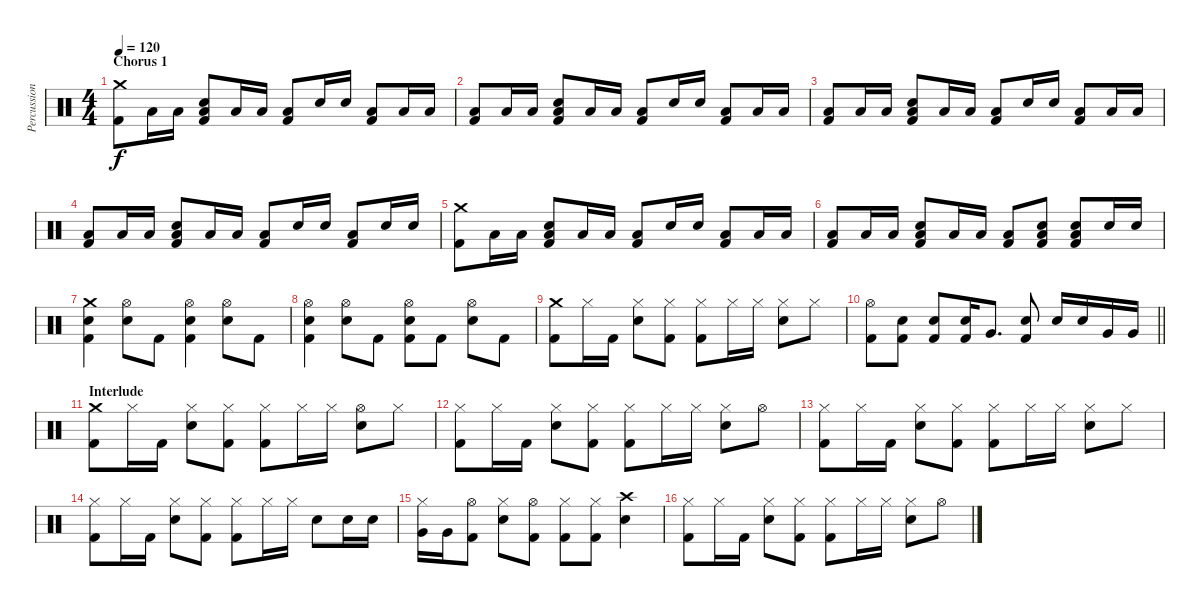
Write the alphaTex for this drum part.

\track ("Percussion" "Percussion") {instrument percussion}
\staff {score}
\articulation defaults
\ts (4 4)
\section ("" "Chorus 1")
\tempo 120
\clef neutral
\ks c
("Crash medium (hit)" "Kick (hit) 2").8{dy f} "Low Floor Tom (hit)".16 "Low Floor Tom (hit)".16 ("Low Floor Tom (hit)" "Electric Snare (hit)" "Kick (hit) 2").8 "Low Floor Tom (hit)".16 "Low Floor Tom (hit)".16 ("Low Floor Tom (hit)" "Kick (hit) 2").8 "Electric Snare (hit)".16 "Electric Snare (hit)".16 ("Low Floor Tom (hit)" "Kick (hit) 2").8 "Low Floor Tom (hit)".16 "Low Floor Tom (hit)".16 |
("Low Floor Tom (hit)" "Kick (hit) 2").8 "Low Floor Tom (hit)".16 "Low Floor Tom (hit)".16 ("Low Floor Tom (hit)" "Electric Snare (hit)" "Kick (hit) 2").8 "Low Floor Tom (hit)".16 "Low Floor Tom (hit)".16 ("Low Floor Tom (hit)" "Kick (hit) 2").8 "Electric Snare (hit)".16 "Electric Snare (hit)".16 ("Low Floor Tom (hit)" "Kick (hit) 2").8 "Low Floor Tom (hit)".16 "Low Floor Tom (hit)".16 |
("Low Floor Tom (hit)" "Kick (hit) 2").8 "Low Floor Tom (hit)".16 "Low Floor Tom (hit)".16 ("Low Floor Tom (hit)" "Electric Snare (hit)" "Kick (hit) 2").8 "Low Floor Tom (hit)".16 "Low Floor Tom (hit)".16 ("Low Floor Tom (hit)" "Kick (hit) 2").8 "Electric Snare (hit)".16 "Electric Snare (hit)".16 ("Low Floor Tom (hit)" "Kick (hit) 2").8 "Low Floor Tom (hit)".16 "Low Floor Tom (hit)".16 |
("Low Floor Tom (hit)" "Kick (hit) 2").8 "Low Floor Tom (hit)".16 "Low Floor Tom (hit)".16 ("Low Floor Tom (hit)" "Electric Snare (hit)" "Kick (hit) 2").8 "Low Floor Tom (hit)".16 "Low Floor Tom (hit)".16 ("Low Floor Tom (hit)" "Kick (hit) 2").8 "Electric Snare (hit)".16 "Electric Snare (hit)".16 ("Low Floor Tom (hit)" "Kick (hit) 2").8 "Electric Snare (hit)".16 "Electric Snare (hit)".16 |
("Crash medium (hit)" "Kick (hit) 2").8 "Low Floor Tom (hit)".16 "Low Floor Tom (hit)".16 ("Low Floor Tom (hit)" "Electric Snare (hit)" "Kick (hit) 2").8 "Low Floor Tom (hit)".16 "Low Floor Tom (hit)".16 ("Low Floor Tom (hit)" "Kick (hit) 2").8 "Electric Snare (hit)".16 "Electric Snare (hit)".16 ("Low Floor Tom (hit)" "Kick (hit) 2").8 "Low Floor Tom (hit)".16 "Low Floor Tom (hit)".16 |
("Low Floor Tom (hit)" "Kick (hit) 2").8 "Low Floor Tom (hit)".16 "Low Floor Tom (hit)".16 ("Low Floor Tom (hit)" "Electric Snare (hit)" "Kick (hit) 2").8 "Low Floor Tom (hit)".16 "Low Floor Tom (hit)".16 ("Low Floor Tom (hit)" "Kick (hit) 2").8 ("Low Floor Tom (hit)" "Electric Snare (hit)" "Kick (hit) 2").8 ("Low Floor Tom (hit)" "Electric Snare (hit)" "Kick (hit) 2").8 "Electric Snare (hit)".16 "Electric Snare (hit)".16 |
("Crash medium (hit)" "Electric Snare (hit)" "Kick (hit) 2").4 ("Hi-Hat (open)" "Electric Snare (hit)").8 "Kick (hit) 2".8 ("Hi-Hat (open)" "Electric Snare (hit)" "Kick (hit) 2").4 ("Hi-Hat (open)" "Electric Snare (hit)").8 "Kick (hit) 2".8 |
("Hi-Hat (open)" "Electric Snare (hit)" "Kick (hit) 2").4 ("Hi-Hat (open)" "Electric Snare (hit)").8 "Kick (hit) 2".8 ("Hi-Hat (open)" "Electric Snare (hit)" "Kick (hit) 2").8 "Kick (hit) 2".8 ("Hi-Hat (open)" "Electric Snare (hit)").8 "Kick (hit) 2".8 |
("Crash medium (hit)" "Kick (hit) 2").8 "Hi-Hat (closed)".16 "Kick (hit) 2".16 ("Hi-Hat (closed)" "Electric Snare (hit)").8 ("Hi-Hat (closed)" "Kick (hit) 2").8 ("Hi-Hat (closed)" "Kick (hit) 2").8 "Hi-Hat (closed)".16 "Hi-Hat (closed)".16 ("Hi-Hat (closed)" "Electric Snare (hit)").8 "Hi-Hat (closed)".8 |
\barLineRight lightlight
("Hi-Hat (open)" "Kick (hit) 2").8 ("Electric Snare (hit)" "Kick (hit) 2").8 ("Electric Snare (hit)" "Kick (hit) 2").8 ("Electric Snare (hit)" "Kick (hit) 2").16 "Very Low Tom (hit)".8{d} ("Electric Snare (hit)" "Kick (hit) 2").8 "Electric Snare (hit)".16 "Electric Snare (hit)".16 "Very Low Tom (hit)".16 "Very Low Tom (hit)".16 |
\section ("" "Interlude")
("Crash medium (hit)" "Kick (hit) 2").8 "Hi-Hat (closed)".16 "Kick (hit) 2".16 ("Hi-Hat (closed)" "Electric Snare (hit)").8 ("Hi-Hat (closed)" "Kick (hit) 2").8 ("Hi-Hat (closed)" "Kick (hit) 2").8 "Hi-Hat (closed)".16 "Hi-Hat (closed)".16 ("Hi-Hat (open)" "Electric Snare (hit)").8 "Hi-Hat (closed)".8 |
("Hi-Hat (closed)" "Kick (hit) 2").8 "Hi-Hat (closed)".16 "Kick (hit) 2".16 ("Hi-Hat (closed)" "Electric Snare (hit)").8 ("Hi-Hat (closed)" "Kick (hit) 2").8 ("Hi-Hat (closed)" "Kick (hit) 2").8 "Hi-Hat (closed)".16 "Hi-Hat (closed)".16 ("Hi-Hat (closed)" "Electric Snare (hit)").8 "Hi-Hat (open)".8 |
("Hi-Hat (closed)" "Kick (hit) 2").8 "Hi-Hat (closed)".16 "Kick (hit) 2".16 ("Hi-Hat (closed)" "Electric Snare (hit)").8 ("Hi-Hat (closed)" "Kick (hit) 2").8 ("Hi-Hat (closed)" "Kick (hit) 2").8 "Hi-Hat (closed)".16 "Hi-Hat (closed)".16 ("Hi-Hat (closed)" "Electric Snare (hit)").8 "Hi-Hat (closed)".8 |
("Hi-Hat (closed)" "Kick (hit) 2").8 "Hi-Hat (closed)".16 "Kick (hit) 2".16 ("Hi-Hat (closed)" "Electric Snare (hit)").8 ("Hi-Hat (closed)" "Kick (hit) 2").8 ("Hi-Hat (closed)" "Kick (hit) 2").8 "Hi-Hat (closed)".16 "Hi-Hat (closed)".16 "Electric Snare (hit)".8 "Electric Snare (hit)".16 "Electric Snare (hit)".16 |
("Hi-Hat (closed)" "Very Low Tom (hit)").16 "Very Low Tom (hit)".16 ("Hi-Hat (open)" "Kick (hit) 2").8 ("Hi-Hat (closed)" "Electric Snare (hit)").8 ("Hi-Hat (open)" "Kick (hit) 2").8 ("Hi-Hat (closed)" "Kick (hit) 2").8 ("Hi-Hat (closed)" "Kick (hit) 2").8 ("Crash high (hit)" "Electric Snare (hit)").4 |
("Hi-Hat (closed)" "Kick (hit) 2").8 "Hi-Hat (closed)".16 "Kick (hit) 2".16 ("Hi-Hat (closed)" "Electric Snare (hit)").8 ("Hi-Hat (closed)" "Kick (hit) 2").8 ("Hi-Hat (closed)" "Kick (hit) 2").8 "Hi-Hat (closed)".16 "Hi-Hat (closed)".16 ("Hi-Hat (closed)" "Electric Snare (hit)").8 "Hi-Hat (open)".8
